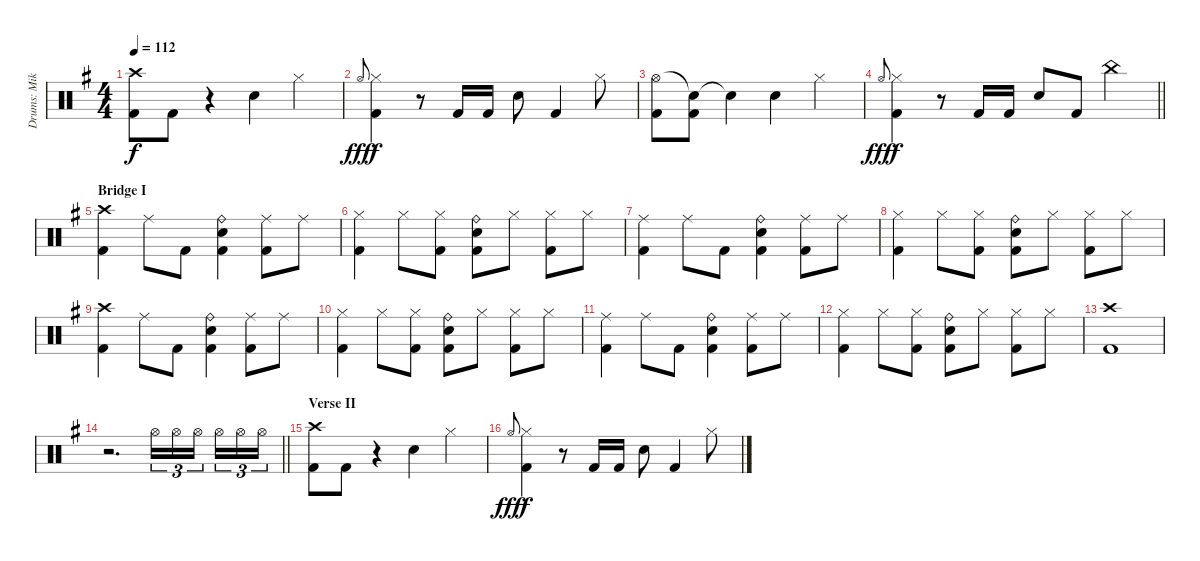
\track ("Drums: Mike" "Drums: Mik") {instrument percussion}
\staff {score}
\articulation defaults
\ts (4 4)
\tempo 112
\clef neutral
\ks g
("Crash high (hit)" "Kick (hit) 2").8{dy f} "Kick (hit) 2".8 r.4 "Electric Snare (hit)".4 "Hi-Hat (closed)".4 |
"Hi-Hat (open)".8{gr onbeat dy fff} ("Hi-Hat (closed)" "Kick (hit) 2").4{dy f} r.8 "Kick (hit) 2".16 "Kick (hit) 2".16 "Electric Snare (hit)".8 "Kick (hit) 2".4 "Hi-Hat (closed)".8 |
("Hi-Hat (open)" "Kick (hit) 2").8 ("Snare (hit)"{t} "Kick (hit) 2").8 "Snare (hit)"{t}.4 "Electric Snare (hit)".4 "Hi-Hat (closed)".4 |
\barLineRight lightlight "Hi-Hat (open)".8{gr onbeat dy fff}
("Hi-Hat (closed)" "Kick (hit) 2").4{dy f} r.8 "Kick (hit) 2".16 "Kick (hit) 2".16 "Electric Snare (hit)".8 "Kick (hit) 2".8 "China (hit)".4 |
\section ("" "Bridge I")
("Crash high (hit)" "Kick (hit) 2").4 "Ride (middle)".8 "Kick (hit) 2".8 ("Ride (bell)" "Electric Snare (hit)" "Kick (hit) 2").4 ("Ride (middle)" "Kick (hit) 2").8 "Ride (middle)".8 |
("Hi-Hat (closed)" "Kick (hit) 2").4 "Hi-Hat (closed)".8 ("Hi-Hat (closed)" "Kick (hit) 2").8 ("Ride (bell)" "Electric Snare (hit)" "Kick (hit) 2").8 "Hi-Hat (closed)".8 ("Hi-Hat (closed)" "Kick (hit) 2").8 "Hi-Hat (closed)".8 |
("Ride (middle)" "Kick (hit) 2").4 "Ride (middle)".8 "Kick (hit) 2".8 ("Ride (bell)" "Electric Snare (hit)" "Kick (hit) 2").4 ("Ride (middle)" "Kick (hit) 2").8 "Ride (middle)".8 |
("Hi-Hat (closed)" "Kick (hit) 2").4 "Hi-Hat (closed)".8 ("Hi-Hat (closed)" "Kick (hit) 2").8 ("Ride (bell)" "Electric Snare (hit)" "Kick (hit) 2").8 "Hi-Hat (closed)".8 ("Hi-Hat (closed)" "Kick (hit) 2").8 "Hi-Hat (closed)".8 |
("Crash high (hit)" "Kick (hit) 2").4 "Ride (middle)".8 "Kick (hit) 2".8 ("Ride (bell)" "Electric Snare (hit)" "Kick (hit) 2").4 ("Ride (middle)" "Kick (hit) 2").8 "Ride (middle)".8 |
("Hi-Hat (closed)" "Kick (hit) 2").4 "Hi-Hat (closed)".8 ("Hi-Hat (closed)" "Kick (hit) 2").8 ("Ride (bell)" "Electric Snare (hit)" "Kick (hit) 2").8 "Hi-Hat (closed)".8 ("Hi-Hat (closed)" "Kick (hit) 2").8 "Hi-Hat (closed)".8 |
("Ride (middle)" "Kick (hit) 2").4 "Ride (middle)".8 "Kick (hit) 2".8 ("Ride (bell)" "Electric Snare (hit)" "Kick (hit) 2").4 ("Ride (middle)" "Kick (hit) 2").8 "Ride (middle)".8 |
("Hi-Hat (closed)" "Kick (hit) 2").4 "Hi-Hat (closed)".8 ("Hi-Hat (closed)" "Kick (hit) 2").8 ("Ride (bell)" "Electric Snare (hit)" "Kick (hit) 2").8 "Hi-Hat (closed)".8 ("Hi-Hat (closed)" "Kick (hit) 2").8 "Hi-Hat (closed)".8 |
("Crash high (hit)" "Kick (hit) 2").1 |
\barLineRight lightlight
r.2{d} "Hi-Hat (open)".16{tu (3 2)} "Hi-Hat (open)".16{tu (3 2)} "Hi-Hat (open)".16{tu (3 2) beam splitsecondary} "Hi-Hat (open)".16{tu (3 2)} "Hi-Hat (open)".16{tu (3 2)} "Hi-Hat (open)".16{tu (3 2)} |
\section ("" "Verse II")
("Crash high (hit)" "Kick (hit) 2").8 "Kick (hit) 2".8 r.4 "Electric Snare (hit)".4 "Hi-Hat (closed)".4 |
"Hi-Hat (open)".8{gr onbeat dy fff} ("Hi-Hat (closed)" "Kick (hit) 2").4{dy f} r.8 "Kick (hit) 2".16 "Kick (hit) 2".16 "Electric Snare (hit)".8 "Kick (hit) 2".4 "Hi-Hat (closed)".8
